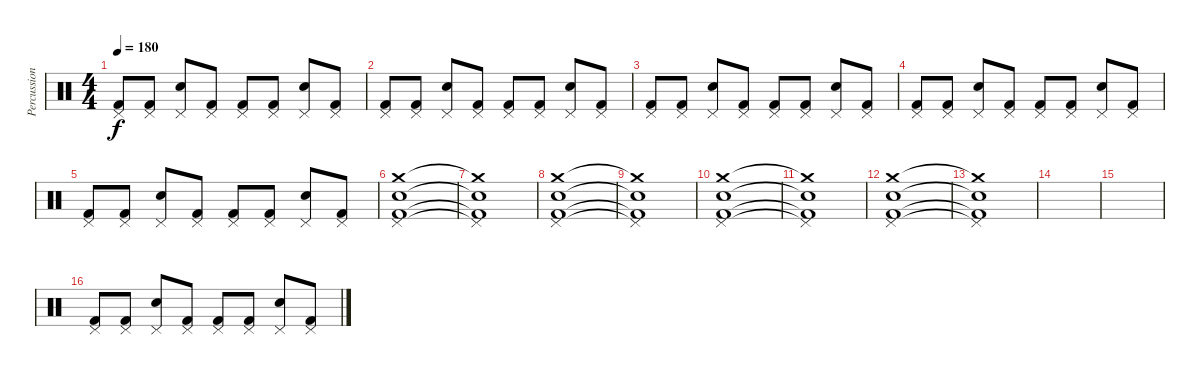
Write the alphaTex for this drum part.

\track ("Percussion" "Percussion") {instrument percussion}
\staff {score}
\articulation defaults
\ts (4 4)
\tempo 180
\clef neutral
\ks c
("Pedal Hi-Hat (hit)" "Kick (hit) 2").8{dy f} ("Pedal Hi-Hat (hit)" "Kick (hit) 2").8 ("Pedal Hi-Hat (hit)" "Snare (hit) 2").8 ("Pedal Hi-Hat (hit)" "Kick (hit) 2").8 ("Pedal Hi-Hat (hit)" "Kick (hit) 2").8 ("Pedal Hi-Hat (hit)" "Kick (hit) 2").8 ("Pedal Hi-Hat (hit)" "Snare (hit) 2").8 ("Pedal Hi-Hat (hit)" "Kick (hit) 2").8 |
("Pedal Hi-Hat (hit)" "Kick (hit) 2").8 ("Pedal Hi-Hat (hit)" "Kick (hit) 2").8 ("Pedal Hi-Hat (hit)" "Snare (hit) 2").8 ("Pedal Hi-Hat (hit)" "Kick (hit) 2").8 ("Pedal Hi-Hat (hit)" "Kick (hit) 2").8 ("Pedal Hi-Hat (hit)" "Kick (hit) 2").8 ("Pedal Hi-Hat (hit)" "Snare (hit) 2").8 ("Pedal Hi-Hat (hit)" "Kick (hit) 2").8 |
("Pedal Hi-Hat (hit)" "Kick (hit) 2").8 ("Pedal Hi-Hat (hit)" "Kick (hit) 2").8 ("Pedal Hi-Hat (hit)" "Snare (hit) 2").8 ("Pedal Hi-Hat (hit)" "Kick (hit) 2").8 ("Pedal Hi-Hat (hit)" "Kick (hit) 2").8 ("Pedal Hi-Hat (hit)" "Kick (hit) 2").8 ("Pedal Hi-Hat (hit)" "Snare (hit) 2").8 ("Pedal Hi-Hat (hit)" "Kick (hit) 2").8 |
("Pedal Hi-Hat (hit)" "Kick (hit) 2").8 ("Pedal Hi-Hat (hit)" "Kick (hit) 2").8 ("Pedal Hi-Hat (hit)" "Snare (hit) 2").8 ("Pedal Hi-Hat (hit)" "Kick (hit) 2").8 ("Pedal Hi-Hat (hit)" "Kick (hit) 2").8 ("Pedal Hi-Hat (hit)" "Kick (hit) 2").8 ("Pedal Hi-Hat (hit)" "Snare (hit) 2").8 ("Pedal Hi-Hat (hit)" "Kick (hit) 2").8 |
("Pedal Hi-Hat (hit)" "Kick (hit) 2").8 ("Pedal Hi-Hat (hit)" "Kick (hit) 2").8 ("Pedal Hi-Hat (hit)" "Snare (hit) 2").8 ("Pedal Hi-Hat (hit)" "Kick (hit) 2").8 ("Pedal Hi-Hat (hit)" "Kick (hit) 2").8 ("Pedal Hi-Hat (hit)" "Kick (hit) 2").8 ("Pedal Hi-Hat (hit)" "Snare (hit) 2").8 ("Pedal Hi-Hat (hit)" "Kick (hit) 2").8 |
("Pedal Hi-Hat (hit)" "Crash medium (hit)" "Snare (hit) 2" "Kick (hit) 2").1 |
("Pedal Hi-Hat (hit)"{t} "Crash medium (hit)"{t} "Snare (hit) 2"{t} "Kick (hit) 2"{t}).1 |
("Pedal Hi-Hat (hit)" "Crash medium (hit)" "Snare (hit) 2" "Kick (hit) 2").1 |
("Pedal Hi-Hat (hit)"{t} "Crash medium (hit)"{t} "Snare (hit) 2"{t} "Kick (hit) 2"{t}).1 |
("Pedal Hi-Hat (hit)" "Crash medium (hit)" "Snare (hit) 2" "Kick (hit) 2").1 |
("Pedal Hi-Hat (hit)"{t} "Crash medium (hit)"{t} "Snare (hit) 2"{t} "Kick (hit) 2"{t}).1 |
("Pedal Hi-Hat (hit)" "Crash medium (hit)" "Snare (hit) 2" "Kick (hit) 2").1 |
("Pedal Hi-Hat (hit)"{t} "Crash medium (hit)"{t} "Snare (hit) 2"{t} "Kick (hit) 2"{t}).1 |
|
|
("Pedal Hi-Hat (hit)" "Kick (hit) 2").8 ("Pedal Hi-Hat (hit)" "Kick (hit) 2").8 ("Pedal Hi-Hat (hit)" "Snare (hit) 2").8 ("Pedal Hi-Hat (hit)" "Kick (hit) 2").8 ("Pedal Hi-Hat (hit)" "Kick (hit) 2").8 ("Pedal Hi-Hat (hit)" "Kick (hit) 2").8 ("Pedal Hi-Hat (hit)" "Snare (hit) 2").8 ("Pedal Hi-Hat (hit)" "Kick (hit) 2").8
